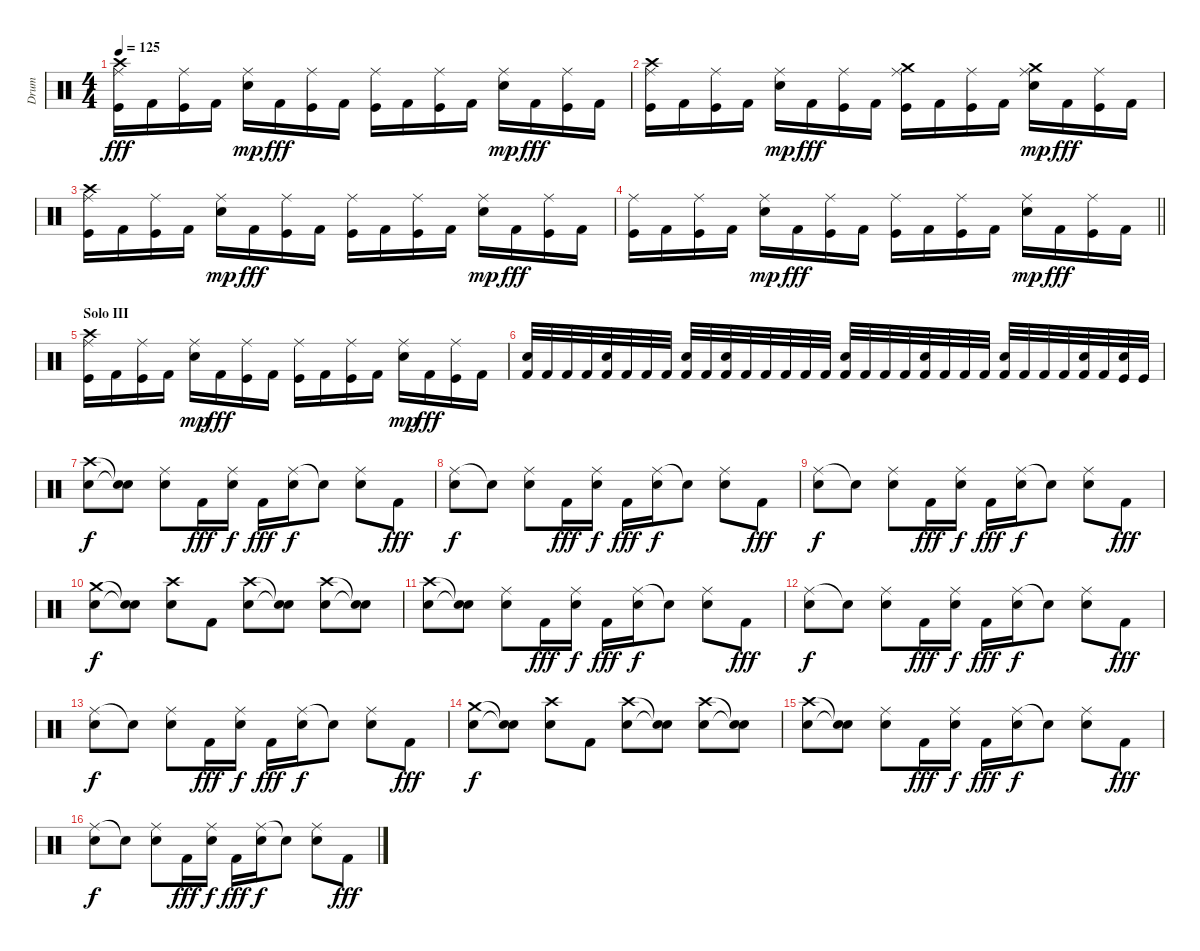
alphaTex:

\track ("Drum" "Drum") {instrument percussion}
\staff {score}
\articulation defaults
\ts (4 4)
\tempo 125
\clef neutral
\ks c
("Crash high (hit)" "Ride (middle)" "Kick (hit)").16{dy fff} "Kick (hit) 2".16 ("Ride (middle)" "Kick (hit)").16 "Kick (hit) 2".16 ("Ride (middle)" "Electric Snare (hit)").16{dy mp} "Kick (hit) 2".16{dy fff} ("Ride (middle)" "Kick (hit)").16 "Kick (hit) 2".16 ("Ride (middle)" "Kick (hit)").16 "Kick (hit) 2".16 ("Ride (middle)" "Kick (hit)").16 "Kick (hit) 2".16 ("Ride (middle)" "Electric Snare (hit)").16{dy mp} "Kick (hit) 2".16{dy fff} ("Ride (middle)" "Kick (hit)").16 "Kick (hit) 2".16 |
("Crash high (hit)" "Ride (middle)" "Kick (hit)").16 "Kick (hit) 2".16 ("Ride (middle)" "Kick (hit)").16 "Kick (hit) 2".16 ("Ride (middle)" "Electric Snare (hit)").16{dy mp} "Kick (hit) 2".16{dy fff} ("Ride (middle)" "Kick (hit)").16 "Kick (hit) 2".16 ("Crash medium (hit)" "Ride (middle)" "Kick (hit)").16 "Kick (hit) 2".16 ("Ride (middle)" "Kick (hit)").16 "Kick (hit) 2".16 ("Crash medium (hit)" "Ride (middle)" "Electric Snare (hit)").16{dy mp} "Kick (hit) 2".16{dy fff} ("Ride (middle)" "Kick (hit)").16 "Kick (hit) 2".16 |
("Crash high (hit)" "Ride (middle)" "Kick (hit)").16 "Kick (hit) 2".16 ("Ride (middle)" "Kick (hit)").16 "Kick (hit) 2".16 ("Ride (middle)" "Electric Snare (hit)").16{dy mp} "Kick (hit) 2".16{dy fff} ("Ride (middle)" "Kick (hit)").16 "Kick (hit) 2".16 ("Ride (middle)" "Kick (hit)").16 "Kick (hit) 2".16 ("Ride (middle)" "Kick (hit)").16 "Kick (hit) 2".16 ("Ride (middle)" "Electric Snare (hit)").16{dy mp} "Kick (hit) 2".16{dy fff} ("Ride (middle)" "Kick (hit)").16 "Kick (hit) 2".16 |
\barLineRight lightlight
("Ride (middle)" "Kick (hit)").16 "Kick (hit) 2".16 ("Ride (middle)" "Kick (hit)").16 "Kick (hit) 2".16 ("Ride (middle)" "Electric Snare (hit)").16{dy mp} "Kick (hit) 2".16{dy fff} ("Ride (middle)" "Kick (hit)").16 "Kick (hit) 2".16 ("Ride (middle)" "Kick (hit)").16 "Kick (hit) 2".16 ("Ride (middle)" "Kick (hit)").16 "Kick (hit) 2".16 ("Ride (middle)" "Electric Snare (hit)").16{dy mp} "Kick (hit) 2".16{dy fff} ("Ride (middle)" "Kick (hit)").16 "Kick (hit) 2".16 |
\section ("" "Solo III")
("Crash high (hit)" "Ride (middle)" "Kick (hit)").16 "Kick (hit) 2".16 ("Ride (middle)" "Kick (hit)").16 "Kick (hit) 2".16 ("Ride (middle)" "Electric Snare (hit)").16{dy mp} "Kick (hit) 2".16{dy fff} ("Ride (middle)" "Kick (hit)").16 "Kick (hit) 2".16 ("Ride (middle)" "Kick (hit)").16 "Kick (hit) 2".16 ("Ride (middle)" "Kick (hit)").16 "Kick (hit) 2".16 ("Ride (middle)" "Electric Snare (hit)").16{dy mp} "Kick (hit) 2".16{dy fff} ("Ride (middle)" "Kick (hit)").16 "Kick (hit) 2".16 |
("Electric Snare (hit)" "Kick (hit) 2").32 "Kick (hit) 2".32 "Kick (hit) 2".32 "Kick (hit) 2".32 ("Electric Snare (hit)" "Kick (hit) 2").32 "Kick (hit) 2".32 "Kick (hit) 2".32 "Kick (hit) 2".32 ("Electric Snare (hit)" "Kick (hit) 2").32 "Kick (hit) 2".32 ("Electric Snare (hit)" "Kick (hit) 2").32 "Kick (hit) 2".32 "Kick (hit) 2".32 "Kick (hit) 2".32 "Kick (hit) 2".32 "Kick (hit) 2".32 ("Electric Snare (hit)" "Kick (hit) 2").32 "Kick (hit) 2".32 "Kick (hit) 2".32 "Kick (hit) 2".32 ("Electric Snare (hit)" "Kick (hit) 2").32 "Kick (hit) 2".32 "Kick (hit) 2".32 "Kick (hit) 2".32 ("Electric Snare (hit)" "Kick (hit) 2").32 "Kick (hit) 2".32 "Kick (hit) 2".32 "Kick (hit) 2".32 ("Electric Snare (hit)" "Kick (hit) 2").32 "Kick (hit) 2".32 ("Electric Snare (hit)" "Kick (hit)").32 "Kick (hit)".32 |
("Crash high (hit)" "Snare (hit) 2").8{dy f} ("Snare (hit)"{t} "Snare (hit)"{t}).8 ("Ride (middle)" "Electric Snare (hit)").8 "Kick (hit) 2".16{dy fff} ("Ride (middle)" "Snare (hit) 2").16{dy f} "Kick (hit) 2".16{dy fff} ("Ride (middle)" "Snare (hit) 2").16{dy f} "Snare (hit)"{t}.8 ("Ride (middle)" "Electric Snare (hit)").8 "Kick (hit) 2".8{dy fff} |
("Ride (middle)" "Snare (hit) 2").8{dy f} "Snare (hit)"{t}.8 ("Ride (middle)" "Electric Snare (hit)").8 "Kick (hit) 2".16{dy fff} ("Ride (middle)" "Snare (hit) 2").16{dy f} "Kick (hit) 2".16{dy fff} ("Ride (middle)" "Snare (hit) 2").16{dy f} "Snare (hit)"{t}.8 ("Ride (middle)" "Electric Snare (hit)").8 "Kick (hit) 2".8{dy fff} |
("Ride (middle)" "Snare (hit) 2").8{dy f} "Snare (hit)"{t}.8 ("Ride (middle)" "Electric Snare (hit)").8 "Kick (hit) 2".16{dy fff} ("Ride (middle)" "Snare (hit) 2").16{dy f} "Kick (hit) 2".16{dy fff} ("Ride (middle)" "Snare (hit) 2").16{dy f} "Snare (hit)"{t}.8 ("Ride (middle)" "Electric Snare (hit)").8 "Kick (hit) 2".8{dy fff} |
("Crash medium (hit)" "Snare (hit) 2").8{dy f} ("Snare (hit)"{t} "Snare (hit)"{t}).8 ("Crash high (hit)" "Electric Snare (hit)").8 "Kick (hit) 2".8 ("Crash high (hit)" "Snare (hit) 2").8 ("Snare (hit)"{t} "Snare (hit)"{t}).8 ("Crash high (hit)" "Electric Snare (hit)").8 ("Snare (hit)"{t} "Snare (hit)"{t}).8 |
("Crash high (hit)" "Snare (hit) 2").8 ("Snare (hit)"{t} "Snare (hit)"{t}).8 ("Ride (middle)" "Electric Snare (hit)").8 "Kick (hit) 2".16{dy fff} ("Ride (middle)" "Snare (hit) 2").16{dy f} "Kick (hit) 2".16{dy fff} ("Ride (middle)" "Snare (hit) 2").16{dy f} "Snare (hit)"{t}.8 ("Ride (middle)" "Electric Snare (hit)").8 "Kick (hit) 2".8{dy fff} |
("Ride (middle)" "Snare (hit) 2").8{dy f} "Snare (hit)"{t}.8 ("Ride (middle)" "Electric Snare (hit)").8 "Kick (hit) 2".16{dy fff} ("Ride (middle)" "Snare (hit) 2").16{dy f} "Kick (hit) 2".16{dy fff} ("Ride (middle)" "Snare (hit) 2").16{dy f} "Snare (hit)"{t}.8 ("Ride (middle)" "Electric Snare (hit)").8 "Kick (hit) 2".8{dy fff} |
("Ride (middle)" "Snare (hit) 2").8{dy f} "Snare (hit)"{t}.8 ("Ride (middle)" "Electric Snare (hit)").8 "Kick (hit) 2".16{dy fff} ("Ride (middle)" "Snare (hit) 2").16{dy f} "Kick (hit) 2".16{dy fff} ("Ride (middle)" "Snare (hit) 2").16{dy f} "Snare (hit)"{t}.8 ("Ride (middle)" "Electric Snare (hit)").8 "Kick (hit) 2".8{dy fff} |
("Crash medium (hit)" "Snare (hit) 2").8{dy f} ("Snare (hit)"{t} "Snare (hit)"{t}).8 ("Crash high (hit)" "Electric Snare (hit)").8 "Kick (hit) 2".8 ("Crash high (hit)" "Snare (hit) 2").8 ("Snare (hit)"{t} "Snare (hit)"{t}).8 ("Crash high (hit)" "Electric Snare (hit)").8 ("Snare (hit)"{t} "Snare (hit)"{t}).8 |
("Crash high (hit)" "Snare (hit) 2").8 ("Snare (hit)"{t} "Snare (hit)"{t}).8 ("Ride (middle)" "Electric Snare (hit)").8 "Kick (hit) 2".16{dy fff} ("Ride (middle)" "Snare (hit) 2").16{dy f} "Kick (hit) 2".16{dy fff} ("Ride (middle)" "Snare (hit) 2").16{dy f} "Snare (hit)"{t}.8 ("Ride (middle)" "Electric Snare (hit)").8 "Kick (hit) 2".8{dy fff} |
("Ride (middle)" "Snare (hit) 2").8{dy f} "Snare (hit)"{t}.8 ("Ride (middle)" "Electric Snare (hit)").8 "Kick (hit) 2".16{dy fff} ("Ride (middle)" "Snare (hit) 2").16{dy f} "Kick (hit) 2".16{dy fff} ("Ride (middle)" "Snare (hit) 2").16{dy f} "Snare (hit)"{t}.8 ("Ride (middle)" "Electric Snare (hit)").8 "Kick (hit) 2".8{dy fff}
